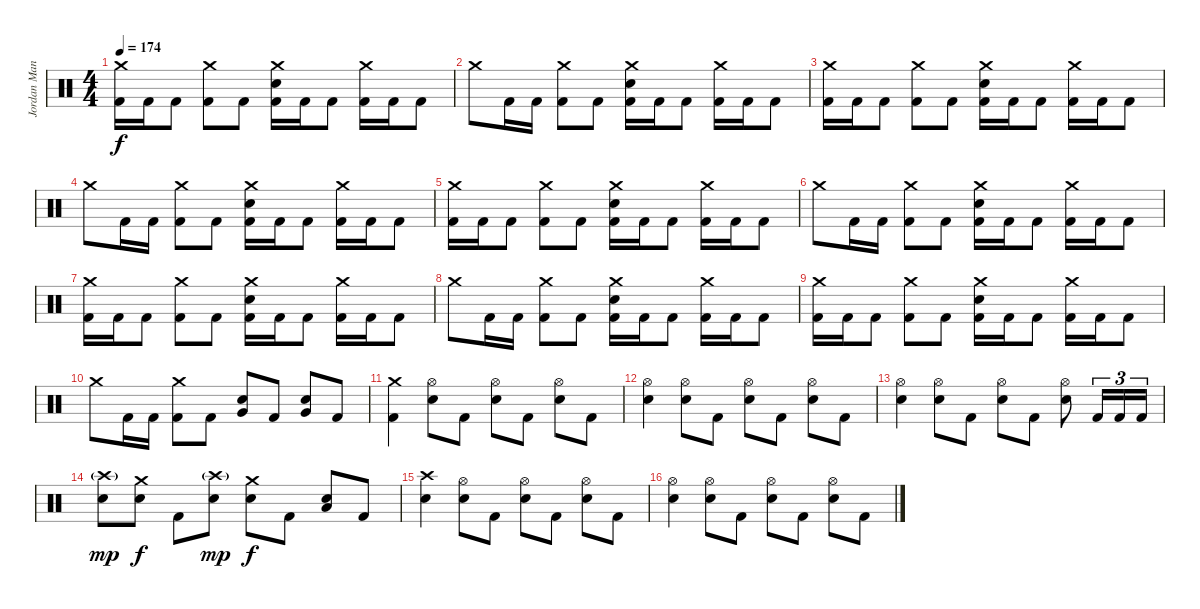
\track ("Jordan Manchino (Drums)" "Jordan Man") {instrument percussion}
\staff {score}
\articulation defaults
\ts (4 4)
\tempo 174
\clef neutral
\ks c
("Crash medium (hit)" "Kick (hit) 2").16{dy f} "Kick (hit) 2".16 "Kick (hit) 2".8 ("Crash medium (hit)" "Kick (hit) 2").8 "Kick (hit) 2".8 ("Crash medium (hit)" "Snare (hit) 2" "Kick (hit) 2").16 "Kick (hit) 2".16 "Kick (hit) 2".8 ("Crash medium (hit)" "Kick (hit) 2").16 "Kick (hit) 2".16 "Kick (hit) 2".8 |
"Crash medium (hit)".8 "Kick (hit) 2".16 "Kick (hit) 2".16 ("Crash medium (hit)" "Kick (hit) 2").8 "Kick (hit) 2".8 ("Crash medium (hit)" "Snare (hit) 2" "Kick (hit) 2").16 "Kick (hit) 2".16 "Kick (hit) 2".8 ("Crash medium (hit)" "Kick (hit) 2").16 "Kick (hit) 2".16 "Kick (hit) 2".8 |
("Crash medium (hit)" "Kick (hit) 2").16 "Kick (hit) 2".16 "Kick (hit) 2".8 ("Crash medium (hit)" "Kick (hit) 2").8 "Kick (hit) 2".8 ("Crash medium (hit)" "Snare (hit) 2" "Kick (hit) 2").16 "Kick (hit) 2".16 "Kick (hit) 2".8 ("Crash medium (hit)" "Kick (hit) 2").16 "Kick (hit) 2".16 "Kick (hit) 2".8 |
"Crash medium (hit)".8 "Kick (hit) 2".16 "Kick (hit) 2".16 ("Crash medium (hit)" "Kick (hit) 2").8 "Kick (hit) 2".8 ("Crash medium (hit)" "Snare (hit) 2" "Kick (hit) 2").16 "Kick (hit) 2".16 "Kick (hit) 2".8 ("Crash medium (hit)" "Kick (hit) 2").16 "Kick (hit) 2".16 "Kick (hit) 2".8 |
("Crash medium (hit)" "Kick (hit) 2").16 "Kick (hit) 2".16 "Kick (hit) 2".8 ("Crash medium (hit)" "Kick (hit) 2").8 "Kick (hit) 2".8 ("Crash medium (hit)" "Snare (hit) 2" "Kick (hit) 2").16 "Kick (hit) 2".16 "Kick (hit) 2".8 ("Crash medium (hit)" "Kick (hit) 2").16 "Kick (hit) 2".16 "Kick (hit) 2".8 |
"Crash medium (hit)".8 "Kick (hit) 2".16 "Kick (hit) 2".16 ("Crash medium (hit)" "Kick (hit) 2").8 "Kick (hit) 2".8 ("Crash medium (hit)" "Snare (hit) 2" "Kick (hit) 2").16 "Kick (hit) 2".16 "Kick (hit) 2".8 ("Crash medium (hit)" "Kick (hit) 2").16 "Kick (hit) 2".16 "Kick (hit) 2".8 |
("Crash medium (hit)" "Kick (hit) 2").16 "Kick (hit) 2".16 "Kick (hit) 2".8 ("Crash medium (hit)" "Kick (hit) 2").8 "Kick (hit) 2".8 ("Crash medium (hit)" "Snare (hit) 2" "Kick (hit) 2").16 "Kick (hit) 2".16 "Kick (hit) 2".8 ("Crash medium (hit)" "Kick (hit) 2").16 "Kick (hit) 2".16 "Kick (hit) 2".8 |
"Crash medium (hit)".8 "Kick (hit) 2".16 "Kick (hit) 2".16 ("Crash medium (hit)" "Kick (hit) 2").8 "Kick (hit) 2".8 ("Crash medium (hit)" "Snare (hit) 2" "Kick (hit) 2").16 "Kick (hit) 2".16 "Kick (hit) 2".8 ("Crash medium (hit)" "Kick (hit) 2").16 "Kick (hit) 2".16 "Kick (hit) 2".8 |
("Crash medium (hit)" "Kick (hit) 2").16 "Kick (hit) 2".16 "Kick (hit) 2".8 ("Crash medium (hit)" "Kick (hit) 2").8 "Kick (hit) 2".8 ("Crash medium (hit)" "Snare (hit) 2" "Kick (hit) 2").16 "Kick (hit) 2".16 "Kick (hit) 2".8 ("Crash medium (hit)" "Kick (hit) 2").16 "Kick (hit) 2".16 "Kick (hit) 2".8 |
"Crash medium (hit)".8 "Kick (hit) 2".16 "Kick (hit) 2".16 ("Crash medium (hit)" "Kick (hit) 2").8 "Kick (hit) 2".8 ("Very Low Tom (hit)" "Snare (hit) 2").8 "Kick (hit) 2".8 ("Very Low Tom (hit)" "Snare (hit) 2").8 "Kick (hit) 2".8 |
("Crash medium (hit)" "Kick (hit) 2").4 ("Hi-Hat (open)" "Snare (hit) 2").8 "Kick (hit) 2".8 ("Hi-Hat (open)" "Snare (hit) 2").8 "Kick (hit) 2".8 ("Hi-Hat (open)" "Snare (hit) 2").8 "Kick (hit) 2".8 |
("Hi-Hat (open)" "Snare (hit) 2").4 ("Hi-Hat (open)" "Snare (hit) 2").8 "Kick (hit) 2".8 ("Hi-Hat (open)" "Snare (hit) 2").8 "Kick (hit) 2".8 ("Hi-Hat (open)" "Snare (hit) 2").8 "Kick (hit) 2".8 |
("Hi-Hat (open)" "Snare (hit) 2").4 ("Hi-Hat (open)" "Snare (hit) 2").8 "Kick (hit) 2".8 ("Hi-Hat (open)" "Snare (hit) 2").8 "Kick (hit) 2".8 ("Hi-Hat (open)" "Snare (hit) 2").8 "Kick (hit) 2".16{tu (3 2)} "Kick (hit) 2".16{tu (3 2)} "Kick (hit) 2".16{tu (3 2)} |
("Crash high (hit)"{g} "Snare (hit) 2").8{dy mp} ("Crash medium (hit)" "Snare (hit) 2").8{dy f} "Kick (hit) 2".8 ("Crash high (hit)"{g} "Snare (hit) 2").8{dy mp} ("Crash medium (hit)" "Snare (hit) 2").8{dy f} "Kick (hit) 2".8 ("Low Floor Tom (hit)" "Snare (hit) 2").8 "Kick (hit) 2".8 |
("Crash high (hit)" "Snare (hit) 2").4 ("Hi-Hat (open)" "Snare (hit) 2").8 "Kick (hit) 2".8 ("Hi-Hat (open)" "Snare (hit) 2").8 "Kick (hit) 2".8 ("Hi-Hat (open)" "Snare (hit) 2").8 "Kick (hit) 2".8 |
("Hi-Hat (open)" "Snare (hit) 2").4 ("Hi-Hat (open)" "Snare (hit) 2").8 "Kick (hit) 2".8 ("Hi-Hat (open)" "Snare (hit) 2").8 "Kick (hit) 2".8 ("Hi-Hat (open)" "Snare (hit) 2").8 "Kick (hit) 2".8
